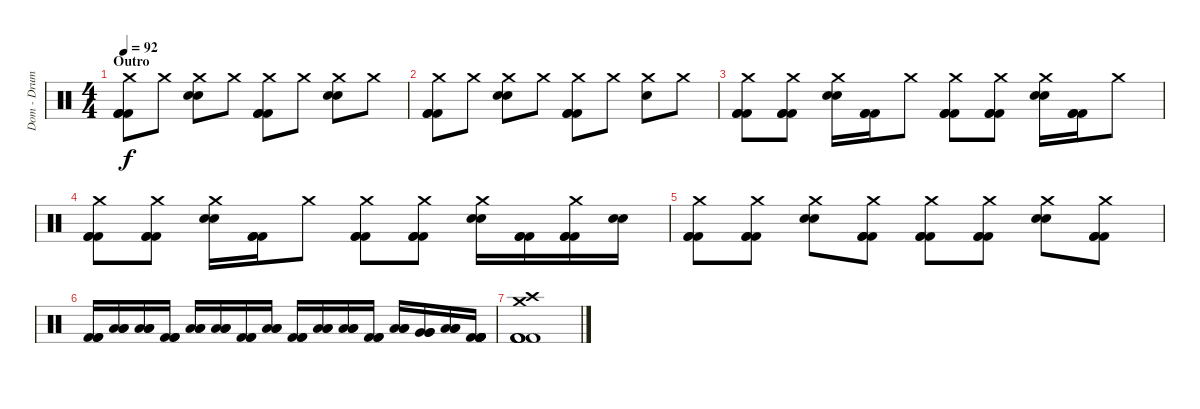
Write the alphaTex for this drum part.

\track ("Dom - Drums " "Dom - Drum") {instrument percussion}
\staff {score}
\articulation defaults
\ts (4 4)
\section ("" "Outro")
\tempo 92
\clef neutral
\ks c
("Crash medium (hit)" "Kick (hit) 2" "Kick (hit) 2" "Kick (hit) 2").8{dy f} "Crash medium (hit)".8 ("Crash medium (hit)" "Snare (hit) 2" "Electric Snare (hit)").8 "Crash medium (hit)".8 ("Crash medium (hit)" "Kick (hit) 2" "Kick (hit) 2" "Kick (hit) 2").8 "Crash medium (hit)".8 ("Crash medium (hit)" "Snare (hit) 2" "Electric Snare (hit)").8 "Crash medium (hit)".8 |
("Crash medium (hit)" "Kick (hit) 2" "Kick (hit) 2" "Kick (hit) 2").8 "Crash medium (hit)".8 ("Crash medium (hit)" "Snare (hit) 2" "Electric Snare (hit)").8 "Crash medium (hit)".8 ("Crash medium (hit)" "Kick (hit) 2" "Kick (hit) 2" "Kick (hit) 2").8 "Crash medium (hit)".8 ("Crash medium (hit)" "Snare (hit) 2").8 "Crash medium (hit)".8 |
("Crash medium (hit)" "Kick (hit) 2" "Kick (hit) 2" "Kick (hit) 2").8 ("Crash medium (hit)" "Kick (hit) 2" "Kick (hit) 2" "Kick (hit) 2").8 ("Crash medium (hit)" "Snare (hit) 2" "Electric Snare (hit)").16 ("Kick (hit) 2" "Kick (hit) 2" "Kick (hit) 2").16 "Crash medium (hit)".8 ("Crash medium (hit)" "Kick (hit) 2" "Kick (hit) 2" "Kick (hit) 2").8 ("Crash medium (hit)" "Kick (hit) 2" "Kick (hit) 2" "Kick (hit) 2").8 ("Crash medium (hit)" "Snare (hit) 2" "Electric Snare (hit)").16 ("Kick (hit) 2" "Kick (hit) 2" "Kick (hit) 2").16 "Crash medium (hit)".8 |
("Crash medium (hit)" "Kick (hit) 2" "Kick (hit) 2" "Kick (hit) 2").8 ("Crash medium (hit)" "Kick (hit) 2" "Kick (hit) 2" "Kick (hit) 2").8 ("Crash medium (hit)" "Snare (hit) 2" "Electric Snare (hit)").16 ("Kick (hit) 2" "Kick (hit) 2" "Kick (hit) 2").16 "Crash medium (hit)".8 ("Crash medium (hit)" "Kick (hit) 2" "Kick (hit) 2" "Kick (hit) 2").8 ("Crash medium (hit)" "Kick (hit) 2" "Kick (hit) 2" "Kick (hit) 2").8 ("Crash medium (hit)" "Snare (hit) 2" "Electric Snare (hit)").16 ("Kick (hit) 2" "Kick (hit) 2" "Kick (hit) 2").16 ("Crash medium (hit)" "Kick (hit) 2" "Kick (hit) 2" "Kick (hit) 2").16 ("Snare (hit) 2" "Electric Snare (hit)").16 |
("Crash medium (hit)" "Kick (hit) 2" "Kick (hit) 2" "Kick (hit) 2").8 ("Crash medium (hit)" "Kick (hit) 2" "Kick (hit) 2" "Kick (hit) 2").8 ("Crash medium (hit)" "Snare (hit) 2" "Electric Snare (hit)").8 ("Crash medium (hit)" "Kick (hit) 2" "Kick (hit) 2" "Kick (hit) 2").8 ("Crash medium (hit)" "Kick (hit) 2" "Kick (hit) 2" "Kick (hit) 2").8 ("Crash medium (hit)" "Kick (hit) 2" "Kick (hit) 2" "Kick (hit) 2").8 ("Crash medium (hit)" "Snare (hit) 2" "Electric Snare (hit)").8 ("Crash medium (hit)" "Kick (hit) 2" "Kick (hit) 2" "Kick (hit) 2").8 |
("Kick (hit) 2" "Kick (hit) 2" "Kick (hit) 2").16 ("Low Tom (hit)" "Low Tom (hit)" "Low Tom (hit)").16 ("Low Tom (hit)" "Low Tom (hit)" "Low Tom (hit)").16 ("Kick (hit) 2" "Kick (hit) 2" "Kick (hit) 2").16 ("Low Tom (hit)" "Low Tom (hit)" "Low Tom (hit)").16 ("Low Tom (hit)" "Low Tom (hit)" "Low Tom (hit)").16 ("Kick (hit) 2" "Kick (hit) 2" "Kick (hit) 2").16 ("Low Tom (hit)" "Low Tom (hit)" "Low Tom (hit)").16 ("Kick (hit) 2" "Kick (hit) 2" "Kick (hit) 2").16 ("Low Tom (hit)" "Low Tom (hit)" "Low Tom (hit)").16 ("Low Tom (hit)" "Low Tom (hit)" "Low Tom (hit)").16 ("Kick (hit) 2" "Kick (hit) 2" "Kick (hit) 2").16 ("Low Tom (hit)" "Low Tom (hit)" "Low Tom (hit)").16 ("Very Low Tom (hit)" "Very Low Tom (hit)" "Very Low Tom (hit)").16 ("Low Floor Tom (hit)" "Low Floor Tom (hit)" "Low Floor Tom (hit)").16 ("Kick (hit) 2" "Kick (hit) 2" "Kick (hit) 2" "Kick (hit) 2" "Kick (hit) 2" "Kick (hit) 2").16 |
("Crash medium (hit)" "Crash high (hit)" "Kick (hit) 2" "Kick (hit) 2" "Kick (hit) 2" "Kick (hit) 2").1
